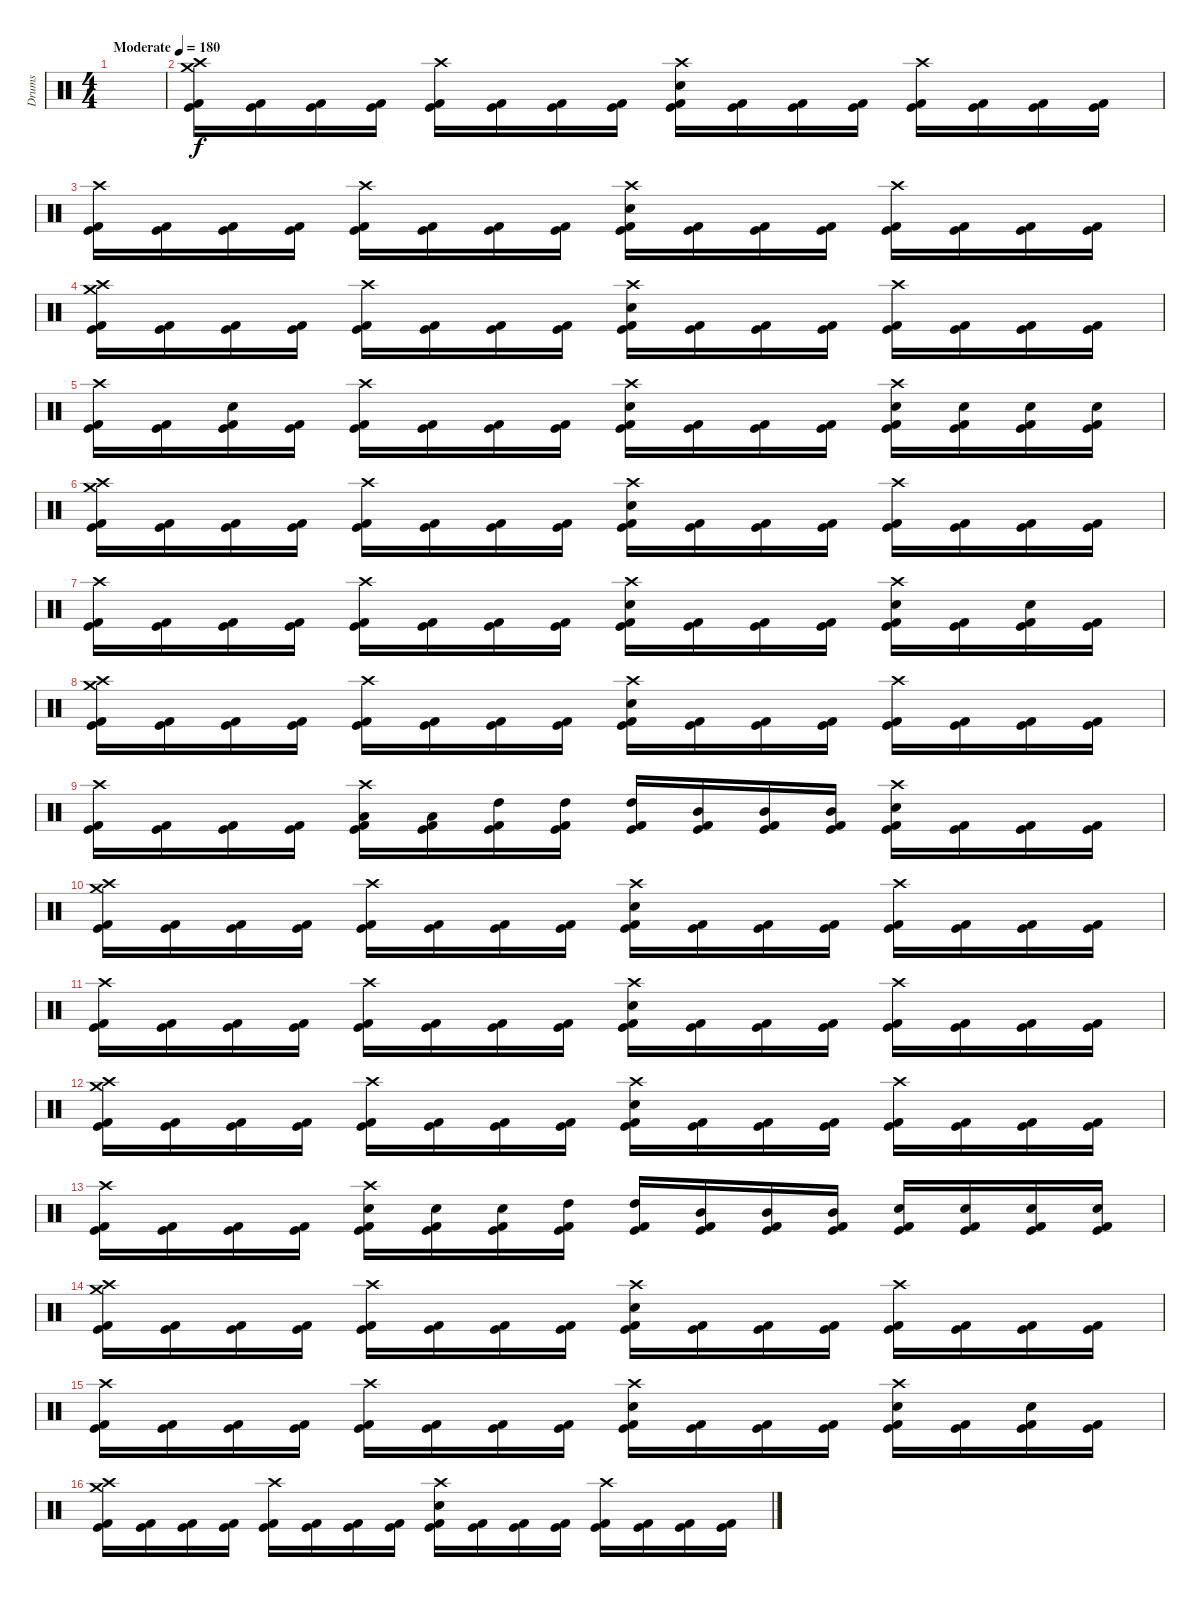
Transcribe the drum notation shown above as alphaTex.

\track ("Drums" "Drums") {instrument percussion}
\staff {score}
\articulation defaults
\ts (4 4)
\tempo (180 "Moderate")
\clef neutral
\ks c
|
("Crash medium (hit)" "Crash high (hit)" "Kick (hit)" "Kick (hit) 2").16 ("Kick (hit)" "Kick (hit) 2").16 ("Kick (hit)" "Kick (hit) 2").16 ("Kick (hit)" "Kick (hit) 2").16 ("Crash high (hit)" "Kick (hit)" "Kick (hit) 2").16 ("Kick (hit)" "Kick (hit) 2").16 ("Kick (hit)" "Kick (hit) 2").16 ("Kick (hit)" "Kick (hit) 2").16 ("Crash high (hit)" "Snare (hit) 2" "Kick (hit)" "Kick (hit) 2").16 ("Kick (hit)" "Kick (hit) 2").16 ("Kick (hit)" "Kick (hit) 2").16 ("Kick (hit)" "Kick (hit) 2").16 ("Crash high (hit)" "Kick (hit)" "Kick (hit) 2").16 ("Kick (hit)" "Kick (hit) 2").16 ("Kick (hit)" "Kick (hit) 2").16 ("Kick (hit)" "Kick (hit) 2").16 |
("Crash high (hit)" "Kick (hit)" "Kick (hit) 2").16 ("Kick (hit)" "Kick (hit) 2").16 ("Kick (hit)" "Kick (hit) 2").16 ("Kick (hit)" "Kick (hit) 2").16 ("Crash high (hit)" "Kick (hit)" "Kick (hit) 2").16 ("Kick (hit)" "Kick (hit) 2").16 ("Kick (hit)" "Kick (hit) 2").16 ("Kick (hit)" "Kick (hit) 2").16 ("Crash high (hit)" "Snare (hit) 2" "Kick (hit)" "Kick (hit) 2").16 ("Kick (hit)" "Kick (hit) 2").16 ("Kick (hit)" "Kick (hit) 2").16 ("Kick (hit)" "Kick (hit) 2").16 ("Crash high (hit)" "Kick (hit)" "Kick (hit) 2").16 ("Kick (hit)" "Kick (hit) 2").16 ("Kick (hit)" "Kick (hit) 2").16 ("Kick (hit)" "Kick (hit) 2").16 |
("Crash medium (hit)" "Crash high (hit)" "Kick (hit)" "Kick (hit) 2").16 ("Kick (hit)" "Kick (hit) 2").16 ("Kick (hit)" "Kick (hit) 2").16 ("Kick (hit)" "Kick (hit) 2").16 ("Crash high (hit)" "Kick (hit)" "Kick (hit) 2").16 ("Kick (hit)" "Kick (hit) 2").16 ("Kick (hit)" "Kick (hit) 2").16 ("Kick (hit)" "Kick (hit) 2").16 ("Crash high (hit)" "Snare (hit) 2" "Kick (hit)" "Kick (hit) 2").16 ("Kick (hit)" "Kick (hit) 2").16 ("Kick (hit)" "Kick (hit) 2").16 ("Kick (hit)" "Kick (hit) 2").16 ("Crash high (hit)" "Kick (hit)" "Kick (hit) 2").16 ("Kick (hit)" "Kick (hit) 2").16 ("Kick (hit)" "Kick (hit) 2").16 ("Kick (hit)" "Kick (hit) 2").16 |
("Crash high (hit)" "Kick (hit)" "Kick (hit) 2").16 ("Kick (hit)" "Kick (hit) 2").16 ("Snare (hit) 2" "Kick (hit)" "Kick (hit) 2").16 ("Kick (hit)" "Kick (hit) 2").16 ("Crash high (hit)" "Kick (hit)" "Kick (hit) 2").16 ("Kick (hit)" "Kick (hit) 2").16 ("Kick (hit)" "Kick (hit) 2").16 ("Kick (hit)" "Kick (hit) 2").16 ("Crash high (hit)" "Snare (hit) 2" "Kick (hit)" "Kick (hit) 2").16 ("Kick (hit)" "Kick (hit) 2").16 ("Kick (hit)" "Kick (hit) 2").16 ("Kick (hit)" "Kick (hit) 2").16 ("Crash high (hit)" "Snare (hit) 2" "Kick (hit)" "Kick (hit) 2").16 ("Snare (hit) 2" "Kick (hit)" "Kick (hit) 2").16 ("Snare (hit) 2" "Kick (hit)" "Kick (hit) 2").16 ("Snare (hit) 2" "Kick (hit)" "Kick (hit) 2").16 |
("Crash medium (hit)" "Crash high (hit)" "Kick (hit)" "Kick (hit) 2").16 ("Kick (hit)" "Kick (hit) 2").16 ("Kick (hit)" "Kick (hit) 2").16 ("Kick (hit)" "Kick (hit) 2").16 ("Crash high (hit)" "Kick (hit)" "Kick (hit) 2").16 ("Kick (hit)" "Kick (hit) 2").16 ("Kick (hit)" "Kick (hit) 2").16 ("Kick (hit)" "Kick (hit) 2").16 ("Crash high (hit)" "Snare (hit) 2" "Kick (hit)" "Kick (hit) 2").16 ("Kick (hit)" "Kick (hit) 2").16 ("Kick (hit)" "Kick (hit) 2").16 ("Kick (hit)" "Kick (hit) 2").16 ("Crash high (hit)" "Kick (hit)" "Kick (hit) 2").16 ("Kick (hit)" "Kick (hit) 2").16 ("Kick (hit)" "Kick (hit) 2").16 ("Kick (hit)" "Kick (hit) 2").16 |
("Crash high (hit)" "Kick (hit)" "Kick (hit) 2").16 ("Kick (hit)" "Kick (hit) 2").16 ("Kick (hit)" "Kick (hit) 2").16 ("Kick (hit)" "Kick (hit) 2").16 ("Crash high (hit)" "Kick (hit)" "Kick (hit) 2").16 ("Kick (hit)" "Kick (hit) 2").16 ("Kick (hit)" "Kick (hit) 2").16 ("Kick (hit)" "Kick (hit) 2").16 ("Crash high (hit)" "Snare (hit) 2" "Kick (hit)" "Kick (hit) 2").16 ("Kick (hit)" "Kick (hit) 2").16 ("Kick (hit)" "Kick (hit) 2").16 ("Kick (hit)" "Kick (hit) 2").16 ("Crash high (hit)" "Snare (hit) 2" "Kick (hit)" "Kick (hit) 2").16 ("Kick (hit)" "Kick (hit) 2").16 ("Snare (hit) 2" "Kick (hit)" "Kick (hit) 2").16 ("Kick (hit)" "Kick (hit) 2").16 |
("Crash medium (hit)" "Crash high (hit)" "Kick (hit)" "Kick (hit) 2").16 ("Kick (hit)" "Kick (hit) 2").16 ("Kick (hit)" "Kick (hit) 2").16 ("Kick (hit)" "Kick (hit) 2").16 ("Crash high (hit)" "Kick (hit)" "Kick (hit) 2").16 ("Kick (hit)" "Kick (hit) 2").16 ("Kick (hit)" "Kick (hit) 2").16 ("Kick (hit)" "Kick (hit) 2").16 ("Crash high (hit)" "Snare (hit) 2" "Kick (hit)" "Kick (hit) 2").16 ("Kick (hit)" "Kick (hit) 2").16 ("Kick (hit)" "Kick (hit) 2").16 ("Kick (hit)" "Kick (hit) 2").16 ("Crash high (hit)" "Kick (hit)" "Kick (hit) 2").16 ("Kick (hit)" "Kick (hit) 2").16 ("Kick (hit)" "Kick (hit) 2").16 ("Kick (hit)" "Kick (hit) 2").16 |
("Crash high (hit)" "Kick (hit)" "Kick (hit) 2").16 ("Kick (hit)" "Kick (hit) 2").16 ("Kick (hit)" "Kick (hit) 2").16 ("Kick (hit)" "Kick (hit) 2").16 ("Crash high (hit)" "Low Tom (hit)" "Kick (hit)" "Kick (hit) 2").16 ("Low Tom (hit)" "Kick (hit)" "Kick (hit) 2").16 ("High Tom (hit)" "Kick (hit)" "Kick (hit) 2").16 ("High Tom (hit)" "Kick (hit)" "Kick (hit) 2").16 ("High Tom (hit)" "Kick (hit)" "Kick (hit) 2").16 ("Mid Tom (hit)" "Kick (hit)" "Kick (hit) 2").16 ("Mid Tom (hit)" "Kick (hit)" "Kick (hit) 2").16 ("Mid Tom (hit)" "Kick (hit)" "Kick (hit) 2").16 ("Crash high (hit)" "Snare (hit) 2" "Kick (hit)" "Kick (hit) 2").16 ("Kick (hit)" "Kick (hit) 2").16 ("Kick (hit)" "Kick (hit) 2").16 ("Kick (hit)" "Kick (hit) 2").16 |
("Crash medium (hit)" "Crash high (hit)" "Kick (hit)" "Kick (hit) 2").16 ("Kick (hit)" "Kick (hit) 2").16 ("Kick (hit)" "Kick (hit) 2").16 ("Kick (hit)" "Kick (hit) 2").16 ("Crash high (hit)" "Kick (hit)" "Kick (hit) 2").16 ("Kick (hit)" "Kick (hit) 2").16 ("Kick (hit)" "Kick (hit) 2").16 ("Kick (hit)" "Kick (hit) 2").16 ("Crash high (hit)" "Snare (hit) 2" "Kick (hit)" "Kick (hit) 2").16 ("Kick (hit)" "Kick (hit) 2").16 ("Kick (hit)" "Kick (hit) 2").16 ("Kick (hit)" "Kick (hit) 2").16 ("Crash high (hit)" "Kick (hit)" "Kick (hit) 2").16 ("Kick (hit)" "Kick (hit) 2").16 ("Kick (hit)" "Kick (hit) 2").16 ("Kick (hit)" "Kick (hit) 2").16 |
("Crash high (hit)" "Kick (hit)" "Kick (hit) 2").16 ("Kick (hit)" "Kick (hit) 2").16 ("Kick (hit)" "Kick (hit) 2").16 ("Kick (hit)" "Kick (hit) 2").16 ("Crash high (hit)" "Kick (hit)" "Kick (hit) 2").16 ("Kick (hit)" "Kick (hit) 2").16 ("Kick (hit)" "Kick (hit) 2").16 ("Kick (hit)" "Kick (hit) 2").16 ("Crash high (hit)" "Snare (hit) 2" "Kick (hit)" "Kick (hit) 2").16 ("Kick (hit)" "Kick (hit) 2").16 ("Kick (hit)" "Kick (hit) 2").16 ("Kick (hit)" "Kick (hit) 2").16 ("Crash high (hit)" "Kick (hit)" "Kick (hit) 2").16 ("Kick (hit)" "Kick (hit) 2").16 ("Kick (hit)" "Kick (hit) 2").16 ("Kick (hit)" "Kick (hit) 2").16 |
("Crash medium (hit)" "Crash high (hit)" "Kick (hit)" "Kick (hit) 2").16 ("Kick (hit)" "Kick (hit) 2").16 ("Kick (hit)" "Kick (hit) 2").16 ("Kick (hit)" "Kick (hit) 2").16 ("Crash high (hit)" "Kick (hit)" "Kick (hit) 2").16 ("Kick (hit)" "Kick (hit) 2").16 ("Kick (hit)" "Kick (hit) 2").16 ("Kick (hit)" "Kick (hit) 2").16 ("Crash high (hit)" "Snare (hit) 2" "Kick (hit)" "Kick (hit) 2").16 ("Kick (hit)" "Kick (hit) 2").16 ("Kick (hit)" "Kick (hit) 2").16 ("Kick (hit)" "Kick (hit) 2").16 ("Crash high (hit)" "Kick (hit)" "Kick (hit) 2").16 ("Kick (hit)" "Kick (hit) 2").16 ("Kick (hit)" "Kick (hit) 2").16 ("Kick (hit)" "Kick (hit) 2").16 |
("Crash high (hit)" "Kick (hit)" "Kick (hit) 2").16 ("Kick (hit)" "Kick (hit) 2").16 ("Kick (hit)" "Kick (hit) 2").16 ("Kick (hit)" "Kick (hit) 2").16 ("Crash high (hit)" "Snare (hit) 2" "Kick (hit)" "Kick (hit) 2").16 ("Snare (hit) 2" "Kick (hit)" "Kick (hit) 2").16 ("Snare (hit) 2" "Kick (hit)" "Kick (hit) 2").16 ("High Tom (hit)" "Kick (hit)" "Kick (hit) 2").16 ("High Tom (hit)" "Kick (hit)" "Kick (hit) 2").16 ("Mid Tom (hit)" "Kick (hit)" "Kick (hit) 2").16 ("Mid Tom (hit)" "Kick (hit)" "Kick (hit) 2").16 ("Mid Tom (hit)" "Kick (hit)" "Kick (hit) 2").16 ("Snare (hit) 2" "Kick (hit)" "Kick (hit) 2").16 ("Snare (hit) 2" "Kick (hit)" "Kick (hit) 2").16 ("Snare (hit) 2" "Kick (hit)" "Kick (hit) 2").16 ("Snare (hit) 2" "Kick (hit)" "Kick (hit) 2").16 |
("Crash medium (hit)" "Crash high (hit)" "Kick (hit)" "Kick (hit) 2").16 ("Kick (hit)" "Kick (hit) 2").16 ("Kick (hit)" "Kick (hit) 2").16 ("Kick (hit)" "Kick (hit) 2").16 ("Crash high (hit)" "Kick (hit)" "Kick (hit) 2").16 ("Kick (hit)" "Kick (hit) 2").16 ("Kick (hit)" "Kick (hit) 2").16 ("Kick (hit)" "Kick (hit) 2").16 ("Crash high (hit)" "Snare (hit) 2" "Kick (hit)" "Kick (hit) 2").16 ("Kick (hit)" "Kick (hit) 2").16 ("Kick (hit)" "Kick (hit) 2").16 ("Kick (hit)" "Kick (hit) 2").16 ("Crash high (hit)" "Kick (hit)" "Kick (hit) 2").16 ("Kick (hit)" "Kick (hit) 2").16 ("Kick (hit)" "Kick (hit) 2").16 ("Kick (hit)" "Kick (hit) 2").16 |
("Crash high (hit)" "Kick (hit)" "Kick (hit) 2").16 ("Kick (hit)" "Kick (hit) 2").16 ("Kick (hit)" "Kick (hit) 2").16 ("Kick (hit)" "Kick (hit) 2").16 ("Crash high (hit)" "Kick (hit)" "Kick (hit) 2").16 ("Kick (hit)" "Kick (hit) 2").16 ("Kick (hit)" "Kick (hit) 2").16 ("Kick (hit)" "Kick (hit) 2").16 ("Crash high (hit)" "Snare (hit) 2" "Kick (hit)" "Kick (hit) 2").16 ("Kick (hit)" "Kick (hit) 2").16 ("Kick (hit)" "Kick (hit) 2").16 ("Kick (hit)" "Kick (hit) 2").16 ("Crash high (hit)" "Snare (hit) 2" "Kick (hit)" "Kick (hit) 2").16 ("Kick (hit)" "Kick (hit) 2").16 ("Snare (hit) 2" "Kick (hit)" "Kick (hit) 2").16 ("Kick (hit)" "Kick (hit) 2").16 |
("Crash medium (hit)" "Crash high (hit)" "Kick (hit)" "Kick (hit) 2").16 ("Kick (hit)" "Kick (hit) 2").16 ("Kick (hit)" "Kick (hit) 2").16 ("Kick (hit)" "Kick (hit) 2").16 ("Crash high (hit)" "Kick (hit)" "Kick (hit) 2").16 ("Kick (hit)" "Kick (hit) 2").16 ("Kick (hit)" "Kick (hit) 2").16 ("Kick (hit)" "Kick (hit) 2").16 ("Crash high (hit)" "Snare (hit) 2" "Kick (hit)" "Kick (hit) 2").16 ("Kick (hit)" "Kick (hit) 2").16 ("Kick (hit)" "Kick (hit) 2").16 ("Kick (hit)" "Kick (hit) 2").16 ("Crash high (hit)" "Kick (hit)" "Kick (hit) 2").16 ("Kick (hit)" "Kick (hit) 2").16 ("Kick (hit)" "Kick (hit) 2").16 ("Kick (hit)" "Kick (hit) 2").16
